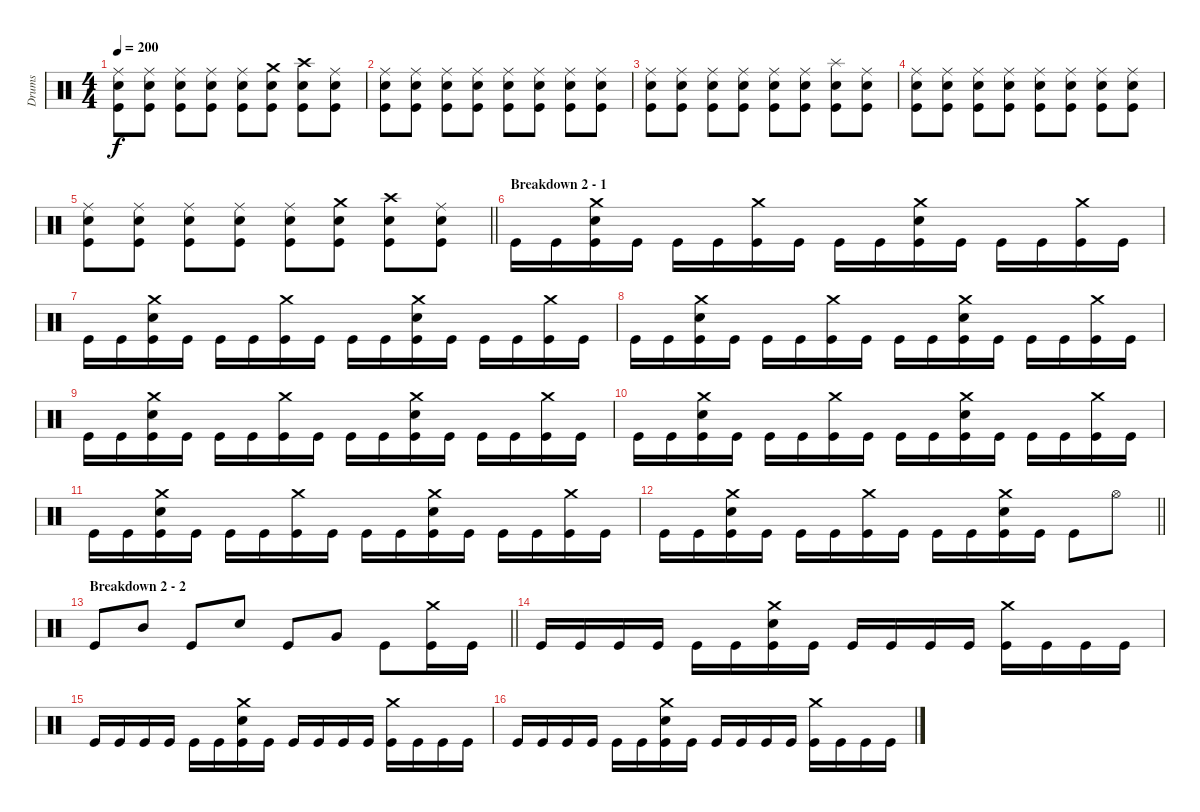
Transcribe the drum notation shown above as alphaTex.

\track ("Drums" "Drums") {instrument percussion}
\staff {score}
\articulation defaults
\ts (4 4)
\tempo 200
\clef neutral
\ks c
("Ride (middle)" "Snare (hit) 2" "Kick (hit)").8{dy f} ("Ride (middle)" "Snare (hit) 2" "Kick (hit)").8 ("Ride (middle)" "Snare (hit) 2" "Kick (hit)").8 ("Ride (middle)" "Snare (hit) 2" "Kick (hit)").8 ("Ride (middle)" "Snare (hit) 2" "Kick (hit)").8 ("Crash medium (hit)" "Snare (hit) 2" "Kick (hit)").8 ("Crash high (hit)" "Snare (hit) 2" "Kick (hit)").8 ("Ride (middle)" "Snare (hit) 2" "Kick (hit)").8 |
("Ride (middle)" "Snare (hit) 2" "Kick (hit)").8 ("Ride (middle)" "Snare (hit) 2" "Kick (hit)").8 ("Ride (middle)" "Snare (hit) 2" "Kick (hit)").8 ("Ride (middle)" "Snare (hit) 2" "Kick (hit)").8 ("Ride (middle)" "Snare (hit) 2" "Kick (hit)").8 ("Ride (middle)" "Snare (hit) 2" "Kick (hit)").8 ("Ride (middle)" "Snare (hit) 2" "Kick (hit)").8 ("Ride (middle)" "Snare (hit) 2" "Kick (hit)").8 |
("Ride (middle)" "Snare (hit) 2" "Kick (hit)").8 ("Ride (middle)" "Snare (hit) 2" "Kick (hit)").8 ("Ride (middle)" "Snare (hit) 2" "Kick (hit)").8 ("Ride (middle)" "Snare (hit) 2" "Kick (hit)").8 ("Ride (middle)" "Snare (hit) 2" "Kick (hit)").8 ("Ride (middle)" "Snare (hit) 2" "Kick (hit)").8 ("Splash (hit)" "Snare (hit) 2" "Kick (hit)").8 ("Ride (middle)" "Snare (hit) 2" "Kick (hit)").8 |
("Ride (middle)" "Snare (hit) 2" "Kick (hit)").8 ("Ride (middle)" "Snare (hit) 2" "Kick (hit)").8 ("Ride (middle)" "Snare (hit) 2" "Kick (hit)").8 ("Ride (middle)" "Snare (hit) 2" "Kick (hit)").8 ("Ride (middle)" "Snare (hit) 2" "Kick (hit)").8 ("Ride (middle)" "Snare (hit) 2" "Kick (hit)").8 ("Ride (middle)" "Snare (hit) 2" "Kick (hit)").8 ("Ride (middle)" "Snare (hit) 2" "Kick (hit)").8 |
\barLineRight lightlight
("Ride (middle)" "Snare (hit) 2" "Kick (hit)").8 ("Ride (middle)" "Snare (hit) 2" "Kick (hit)").8 ("Ride (middle)" "Snare (hit) 2" "Kick (hit)").8 ("Ride (middle)" "Snare (hit) 2" "Kick (hit)").8 ("Ride (middle)" "Snare (hit) 2" "Kick (hit)").8 ("Crash medium (hit)" "Snare (hit) 2" "Kick (hit)").8 ("Crash high (hit)" "Snare (hit) 2" "Kick (hit)").8 ("Ride (middle)" "Snare (hit) 2" "Kick (hit)").8 |
\section ("" "Breakdown 2 - 1")
"Kick (hit)".16 "Kick (hit)".16 ("Crash medium (hit)" "Snare (hit) 2" "Kick (hit)").16 "Kick (hit)".16 "Kick (hit)".16 "Kick (hit)".16 ("Crash medium (hit)" "Kick (hit)").16 "Kick (hit)".16 "Kick (hit)".16 "Kick (hit)".16 ("Crash medium (hit)" "Snare (hit) 2" "Kick (hit)").16 "Kick (hit)".16 "Kick (hit)".16 "Kick (hit)".16 ("Crash medium (hit)" "Kick (hit)").16 "Kick (hit)".16 |
"Kick (hit)".16 "Kick (hit)".16 ("Crash medium (hit)" "Snare (hit) 2" "Kick (hit)").16 "Kick (hit)".16 "Kick (hit)".16 "Kick (hit)".16 ("Crash medium (hit)" "Kick (hit)").16 "Kick (hit)".16 "Kick (hit)".16 "Kick (hit)".16 ("Crash medium (hit)" "Snare (hit) 2" "Kick (hit)").16 "Kick (hit)".16 "Kick (hit)".16 "Kick (hit)".16 ("Crash medium (hit)" "Kick (hit)").16 "Kick (hit)".16 |
"Kick (hit)".16 "Kick (hit)".16 ("Crash medium (hit)" "Snare (hit) 2" "Kick (hit)").16 "Kick (hit)".16 "Kick (hit)".16 "Kick (hit)".16 ("Crash medium (hit)" "Kick (hit)").16 "Kick (hit)".16 "Kick (hit)".16 "Kick (hit)".16 ("Crash medium (hit)" "Snare (hit) 2" "Kick (hit)").16 "Kick (hit)".16 "Kick (hit)".16 "Kick (hit)".16 ("Crash medium (hit)" "Kick (hit)").16 "Kick (hit)".16 |
"Kick (hit)".16 "Kick (hit)".16 ("Crash medium (hit)" "Snare (hit) 2" "Kick (hit)").16 "Kick (hit)".16 "Kick (hit)".16 "Kick (hit)".16 ("Crash medium (hit)" "Kick (hit)").16 "Kick (hit)".16 "Kick (hit)".16 "Kick (hit)".16 ("Crash medium (hit)" "Snare (hit) 2" "Kick (hit)").16 "Kick (hit)".16 "Kick (hit)".16 "Kick (hit)".16 ("Crash medium (hit)" "Kick (hit)").16 "Kick (hit)".16 |
"Kick (hit)".16 "Kick (hit)".16 ("Crash medium (hit)" "Snare (hit) 2" "Kick (hit)").16 "Kick (hit)".16 "Kick (hit)".16 "Kick (hit)".16 ("Crash medium (hit)" "Kick (hit)").16 "Kick (hit)".16 "Kick (hit)".16 "Kick (hit)".16 ("Crash medium (hit)" "Snare (hit) 2" "Kick (hit)").16 "Kick (hit)".16 "Kick (hit)".16 "Kick (hit)".16 ("Crash medium (hit)" "Kick (hit)").16 "Kick (hit)".16 |
"Kick (hit)".16 "Kick (hit)".16 ("Crash medium (hit)" "Snare (hit) 2" "Kick (hit)").16 "Kick (hit)".16 "Kick (hit)".16 "Kick (hit)".16 ("Crash medium (hit)" "Kick (hit)").16 "Kick (hit)".16 "Kick (hit)".16 "Kick (hit)".16 ("Crash medium (hit)" "Snare (hit) 2" "Kick (hit)").16 "Kick (hit)".16 "Kick (hit)".16 "Kick (hit)".16 ("Crash medium (hit)" "Kick (hit)").16 "Kick (hit)".16 |
\barLineRight lightlight "Kick (hit)".16 "Kick (hit)".16
("Crash medium (hit)" "Snare (hit) 2" "Kick (hit)").16 "Kick (hit)".16 "Kick (hit)".16 "Kick (hit)".16 ("Crash medium (hit)" "Kick (hit)").16 "Kick (hit)".16 "Kick (hit)".16 "Kick (hit)".16 ("Crash medium (hit)" "Snare (hit) 2" "Kick (hit)").16 "Kick (hit)".16 "Kick (hit)".8 "Hi-Hat (open)".8 |
\section ("" "Breakdown 2 - 2")
\barLineRight lightlight "Kick (hit)".8 "Mid Tom (hit)".8 "Kick (hit)".8 "Snare (hit) 2".8 "Kick (hit)".8 "Very Low Tom (hit)".8 "Kick (hit)".8
("Crash medium (hit)" "Kick (hit)").16 "Kick (hit)".16 |
"Kick (hit)".16 "Kick (hit)".16 "Kick (hit)".16 "Kick (hit)".16 "Kick (hit)".16 "Kick (hit)".16 ("Crash medium (hit)" "Snare (hit) 2" "Kick (hit)").16 "Kick (hit)".16 "Kick (hit)".16 "Kick (hit)".16 "Kick (hit)".16 "Kick (hit)".16 ("Crash medium (hit)" "Kick (hit)").16 "Kick (hit)".16 "Kick (hit)".16 "Kick (hit)".16 |
"Kick (hit)".16 "Kick (hit)".16 "Kick (hit)".16 "Kick (hit)".16 "Kick (hit)".16 "Kick (hit)".16 ("Crash medium (hit)" "Snare (hit) 2" "Kick (hit)").16 "Kick (hit)".16 "Kick (hit)".16 "Kick (hit)".16 "Kick (hit)".16 "Kick (hit)".16 ("Crash medium (hit)" "Kick (hit)").16 "Kick (hit)".16 "Kick (hit)".16 "Kick (hit)".16 |
"Kick (hit)".16 "Kick (hit)".16 "Kick (hit)".16 "Kick (hit)".16 "Kick (hit)".16 "Kick (hit)".16 ("Crash medium (hit)" "Snare (hit) 2" "Kick (hit)").16 "Kick (hit)".16 "Kick (hit)".16 "Kick (hit)".16 "Kick (hit)".16 "Kick (hit)".16 ("Crash medium (hit)" "Kick (hit)").16 "Kick (hit)".16 "Kick (hit)".16 "Kick (hit)".16
